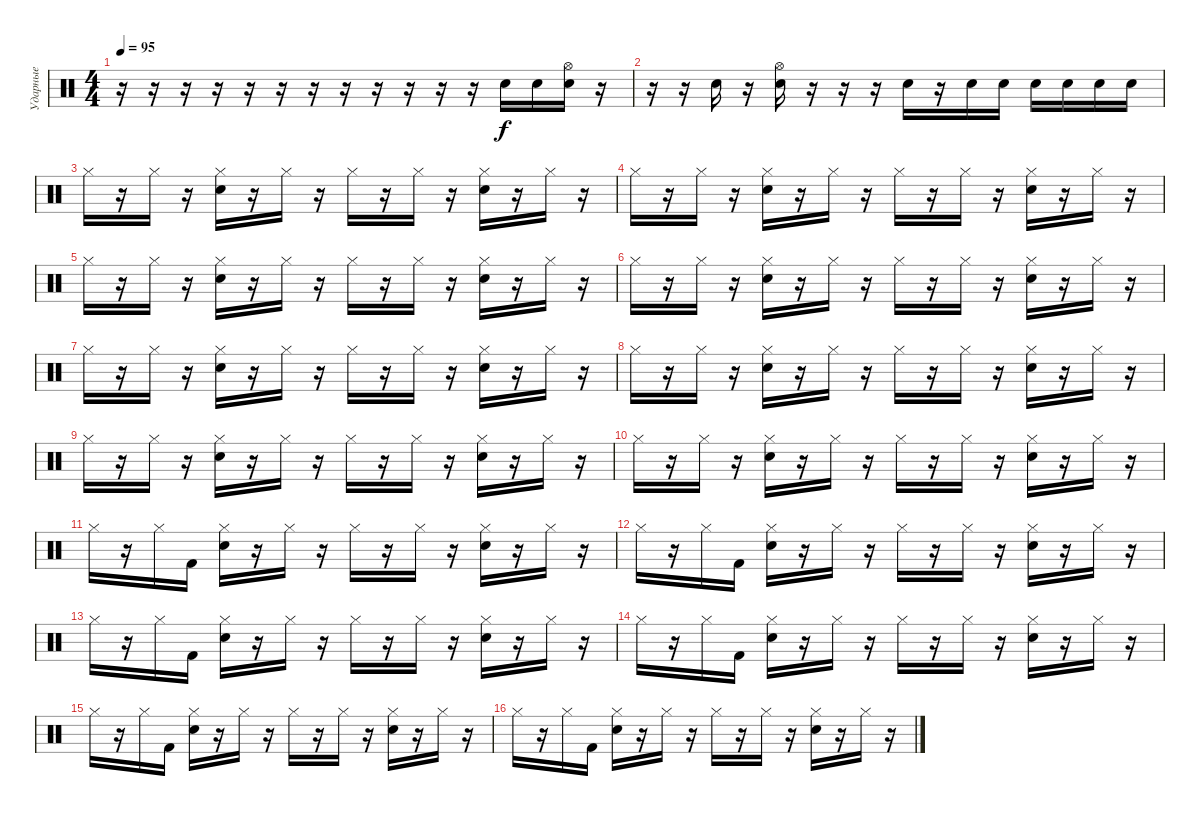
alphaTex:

\track ("Ударные" "Ударные") {instrument percussion}
\staff {score}
\articulation defaults
\ts (4 4)
\tempo 95
\clef neutral
\ks c
r.16{dy f} r.16 r.16 r.16 r.16 r.16 r.16 r.16 r.16 r.16 r.16 r.16 "Electric Snare (hit)".16 "Electric Snare (hit)".16 ("Hi-Hat (open)" "Electric Snare (hit)").16 r.16 |
r.16 r.16 "Snare (hit) 2".16 r.16 ("Hi-Hat (open)" "Electric Snare (hit)").16 r.16 r.16 r.16 "Snare (hit) 2".16 r.16 "Snare (hit) 2".16 "Snare (hit) 2".16 "Snare (hit) 2".16 "Electric Snare (hit)".16 "Electric Snare (hit)".16 "Electric Snare (hit)".16 |
"Hi-Hat (closed)".16 r.16 "Hi-Hat (closed)".16 r.16 ("Hi-Hat (closed)" "Electric Snare (hit)").16 r.16 "Hi-Hat (closed)".16 r.16 "Hi-Hat (closed)".16 r.16 "Hi-Hat (closed)".16 r.16 ("Hi-Hat (closed)" "Electric Snare (hit)").16 r.16 "Hi-Hat (closed)".16 r.16 |
"Hi-Hat (closed)".16 r.16 "Hi-Hat (closed)".16 r.16 ("Hi-Hat (closed)" "Electric Snare (hit)").16 r.16 "Hi-Hat (closed)".16 r.16 "Hi-Hat (closed)".16 r.16 "Hi-Hat (closed)".16 r.16 ("Hi-Hat (closed)" "Electric Snare (hit)").16 r.16 "Hi-Hat (closed)".16 r.16 |
"Hi-Hat (closed)".16 r.16 "Hi-Hat (closed)".16 r.16 ("Hi-Hat (closed)" "Electric Snare (hit)").16 r.16 "Hi-Hat (closed)".16 r.16 "Hi-Hat (closed)".16 r.16 "Hi-Hat (closed)".16 r.16 ("Hi-Hat (closed)" "Electric Snare (hit)").16 r.16 "Hi-Hat (closed)".16 r.16 |
"Hi-Hat (closed)".16 r.16 "Hi-Hat (closed)".16 r.16 ("Hi-Hat (closed)" "Electric Snare (hit)").16 r.16 "Hi-Hat (closed)".16 r.16 "Hi-Hat (closed)".16 r.16 "Hi-Hat (closed)".16 r.16 ("Hi-Hat (closed)" "Electric Snare (hit)").16 r.16 "Hi-Hat (closed)".16 r.16 |
"Hi-Hat (closed)".16 r.16 "Hi-Hat (closed)".16 r.16 ("Hi-Hat (closed)" "Electric Snare (hit)").16 r.16 "Hi-Hat (closed)".16 r.16 "Hi-Hat (closed)".16 r.16 "Hi-Hat (closed)".16 r.16 ("Hi-Hat (closed)" "Electric Snare (hit)").16 r.16 "Hi-Hat (closed)".16 r.16 |
"Hi-Hat (closed)".16 r.16 "Hi-Hat (closed)".16 r.16 ("Hi-Hat (closed)" "Electric Snare (hit)").16 r.16 "Hi-Hat (closed)".16 r.16 "Hi-Hat (closed)".16 r.16 "Hi-Hat (closed)".16 r.16 ("Hi-Hat (closed)" "Electric Snare (hit)").16 r.16 "Hi-Hat (closed)".16 r.16 |
"Hi-Hat (closed)".16 r.16 "Hi-Hat (closed)".16 r.16 ("Hi-Hat (closed)" "Electric Snare (hit)").16 r.16 "Hi-Hat (closed)".16 r.16 "Hi-Hat (closed)".16 r.16 "Hi-Hat (closed)".16 r.16 ("Hi-Hat (closed)" "Electric Snare (hit)").16 r.16 "Hi-Hat (closed)".16 r.16 |
"Hi-Hat (closed)".16 r.16 "Hi-Hat (closed)".16 r.16 ("Hi-Hat (closed)" "Electric Snare (hit)").16 r.16 "Hi-Hat (closed)".16 r.16 "Hi-Hat (closed)".16 r.16 "Hi-Hat (closed)".16 r.16 ("Hi-Hat (closed)" "Electric Snare (hit)").16 r.16 "Hi-Hat (closed)".16 r.16 |
"Hi-Hat (closed)".16 r.16 "Hi-Hat (closed)".16 "Kick (hit) 2".16 ("Hi-Hat (closed)" "Electric Snare (hit)").16 r.16 "Hi-Hat (closed)".16 r.16 "Hi-Hat (closed)".16 r.16 "Hi-Hat (closed)".16 r.16 ("Hi-Hat (closed)" "Electric Snare (hit)").16 r.16 "Hi-Hat (closed)".16 r.16 |
"Hi-Hat (closed)".16 r.16 "Hi-Hat (closed)".16 "Kick (hit) 2".16 ("Hi-Hat (closed)" "Electric Snare (hit)").16 r.16 "Hi-Hat (closed)".16 r.16 "Hi-Hat (closed)".16 r.16 "Hi-Hat (closed)".16 r.16 ("Hi-Hat (closed)" "Electric Snare (hit)").16 r.16 "Hi-Hat (closed)".16 r.16 |
"Hi-Hat (closed)".16 r.16 "Hi-Hat (closed)".16 "Kick (hit) 2".16 ("Hi-Hat (closed)" "Electric Snare (hit)").16 r.16 "Hi-Hat (closed)".16 r.16 "Hi-Hat (closed)".16 r.16 "Hi-Hat (closed)".16 r.16 ("Hi-Hat (closed)" "Electric Snare (hit)").16 r.16 "Hi-Hat (closed)".16 r.16 |
"Hi-Hat (closed)".16 r.16 "Hi-Hat (closed)".16 "Kick (hit) 2".16 ("Hi-Hat (closed)" "Electric Snare (hit)").16 r.16 "Hi-Hat (closed)".16 r.16 "Hi-Hat (closed)".16 r.16 "Hi-Hat (closed)".16 r.16 ("Hi-Hat (closed)" "Electric Snare (hit)").16 r.16 "Hi-Hat (closed)".16 r.16 |
"Hi-Hat (closed)".16 r.16 "Hi-Hat (closed)".16 "Kick (hit) 2".16 ("Hi-Hat (closed)" "Electric Snare (hit)").16 r.16 "Hi-Hat (closed)".16 r.16 "Hi-Hat (closed)".16 r.16 "Hi-Hat (closed)".16 r.16 ("Hi-Hat (closed)" "Electric Snare (hit)").16 r.16 "Hi-Hat (closed)".16 r.16 |
"Hi-Hat (closed)".16 r.16 "Hi-Hat (closed)".16 "Kick (hit) 2".16 ("Hi-Hat (closed)" "Electric Snare (hit)").16 r.16 "Hi-Hat (closed)".16 r.16 "Hi-Hat (closed)".16 r.16 "Hi-Hat (closed)".16 r.16 ("Hi-Hat (closed)" "Electric Snare (hit)").16 r.16 "Hi-Hat (closed)".16 r.16
